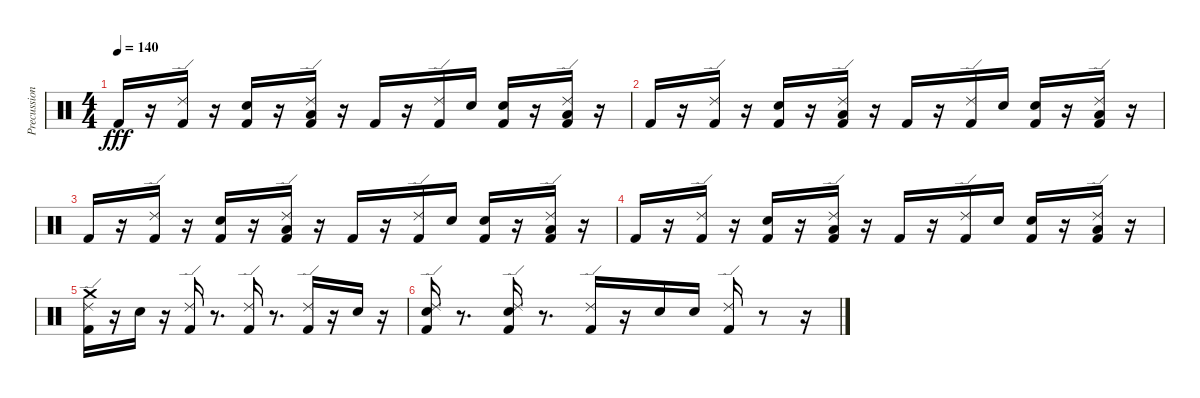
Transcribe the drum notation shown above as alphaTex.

\track ("Precussion" "Precussion") {instrument percussion}
\staff {score}
\articulation defaults
\ts (4 4)
\tempo 140
\clef neutral
\ks c "Kick (hit) 2".16{dy fff}
r.16 ("Kick (hit) 2" "Ride (edge) 2").16 r.16 ("Kick (hit) 2" "Snare (hit) 2").16 r.16 ("Kick (hit) 2" "Ride (edge) 2" "Low Floor Tom (hit)").16 r.16 "Kick (hit) 2".16 r.16 ("Kick (hit) 2" "Ride (edge) 2").16 "Snare (hit) 2".16 ("Kick (hit) 2" "Snare (hit) 2").16 r.16 ("Kick (hit) 2" "Ride (edge) 2" "Low Floor Tom (hit)").16 r.16 |
"Kick (hit) 2".16 r.16 ("Kick (hit) 2" "Ride (edge) 2").16 r.16 ("Kick (hit) 2" "Snare (hit) 2").16 r.16 ("Kick (hit) 2" "Ride (edge) 2" "Low Floor Tom (hit)").16 r.16 "Kick (hit) 2".16 r.16 ("Kick (hit) 2" "Ride (edge) 2").16 "Snare (hit) 2".16 ("Kick (hit) 2" "Snare (hit) 2").16 r.16 ("Kick (hit) 2" "Ride (edge) 2" "Low Floor Tom (hit)").16 r.16 |
"Kick (hit) 2".16 r.16 ("Kick (hit) 2" "Ride (edge) 2").16 r.16 ("Kick (hit) 2" "Snare (hit) 2").16 r.16 ("Kick (hit) 2" "Ride (edge) 2" "Low Floor Tom (hit)").16 r.16 "Kick (hit) 2".16 r.16 ("Kick (hit) 2" "Ride (edge) 2").16 "Snare (hit) 2".16 ("Kick (hit) 2" "Snare (hit) 2").16 r.16 ("Kick (hit) 2" "Ride (edge) 2" "Low Floor Tom (hit)").16 r.16 |
"Kick (hit) 2".16 r.16 ("Kick (hit) 2" "Ride (edge) 2").16 r.16 ("Kick (hit) 2" "Snare (hit) 2").16 r.16 ("Kick (hit) 2" "Ride (edge) 2" "Low Floor Tom (hit)").16 r.16 "Kick (hit) 2".16 r.16 ("Kick (hit) 2" "Ride (edge) 2").16 "Snare (hit) 2".16 ("Kick (hit) 2" "Snare (hit) 2").16 r.16 ("Kick (hit) 2" "Ride (edge) 2" "Low Floor Tom (hit)").16 r.16 |
("Ride (edge) 2" "Kick (hit) 2" "Crash medium (hit)").16 r.16 "Snare (hit) 2".16 r.16 ("Ride (edge) 2" "Kick (hit) 2").16 r.8{d} ("Ride (edge) 2" "Kick (hit) 2").16 r.8{d} ("Ride (edge) 2" "Kick (hit) 2").16 r.16 "Snare (hit) 2".16 r.16 |
("Snare (hit) 2" "Kick (hit) 2" "Ride (edge) 2").16 r.8{d} ("Snare (hit) 2" "Kick (hit) 2" "Ride (edge) 2").16 r.8{d} ("Kick (hit) 2" "Ride (edge) 2").16 r.16 "Snare (hit) 2".16 "Snare (hit) 2".16 ("Kick (hit) 2" "Ride (edge) 2").16 r.8 r.16
